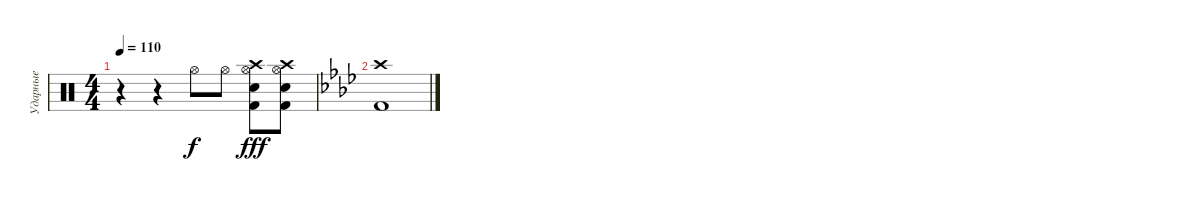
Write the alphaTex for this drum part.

\track ("Ударные" "Ударные") {instrument percussion}
\staff {score}
\articulation defaults
\ts (4 4)
\tempo 110
\clef neutral
\ks c
r.4{dy f} r.4 "Hi-Hat (open)".8 "Hi-Hat (open)".8 ("Kick (hit) 2" "Hi-Hat (open)" "Crash high (hit)" "Snare (hit) 2").8{dy fff} ("Kick (hit) 2" "Hi-Hat (open)" "Crash high (hit)" "Snare (hit) 2").8 |
\ks fminor
("Kick (hit) 2" "Crash high (hit)").1
